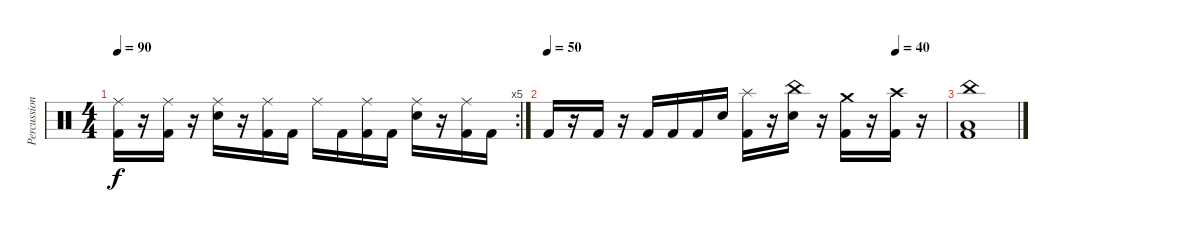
\track ("Percussion" "Percussion") {instrument percussion}
\staff {score}
\articulation defaults
\rc 5
\ts (4 4)
\tempo 90
\clef neutral
\ks c
("Ride (middle)" "Kick (hit) 2").16{dy f} r.16 ("Ride (middle)" "Kick (hit) 2").16 r.16 ("Ride (middle)" "Electric Snare (hit)").16 r.16 ("Ride (middle)" "Kick (hit) 2").16 "Kick (hit) 2".16 "Ride (middle)".16 "Kick (hit) 2".16 ("Ride (middle)" "Kick (hit) 2").16 "Kick (hit) 2".16 ("Ride (middle)" "Electric Snare (hit)").16 r.16 ("Ride (middle)" "Kick (hit) 2").16 "Kick (hit) 2".16 |
\tempo 50
\tempo (40 0.875)
"Kick (hit) 2".16 r.16 "Kick (hit) 2".16 r.16 "Kick (hit) 2".16 "Kick (hit) 2".16 "Kick (hit) 2".16 "Electric Snare (hit)".16 ("Splash (hit)" "Kick (hit) 2").16 r.16 ("China (hit)" "Electric Snare (hit)").16 r.16 ("Crash medium (hit)" "Kick (hit) 2").16 r.16 ("Crash high (hit)" "Kick (hit) 2").16 r.16 |
("China (hit)" "Kick (hit) 2" "Low Floor Tom (hit)").1
